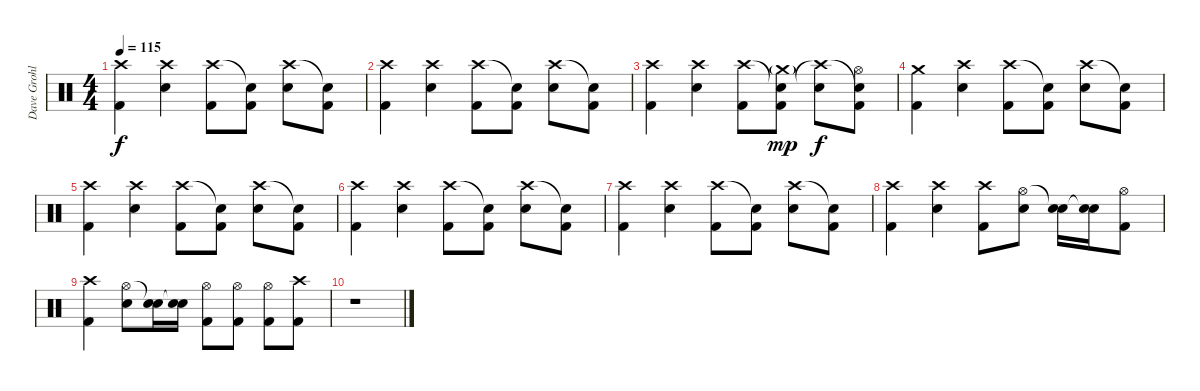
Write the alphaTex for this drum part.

\track ("Dave Grohl - Drums" "Dave Grohl") {instrument percussion}
\staff {score}
\articulation defaults
\ts (4 4)
\tempo 115
\clef neutral
\ks c
("Crash high (hit)" "Kick (hit) 2").4{dy f} ("Crash high (hit)" "Electric Snare (hit)").4 ("Crash high (hit)" "Kick (hit) 2").8 ("Snare (hit)"{t} "Kick (hit) 2").8 ("Crash high (hit)" "Electric Snare (hit)").8 ("Snare (hit)"{t} "Kick (hit) 2").8 |
("Crash high (hit)" "Kick (hit) 2").4 ("Crash high (hit)" "Electric Snare (hit)").4 ("Crash high (hit)" "Kick (hit) 2").8 ("Snare (hit)"{t} "Kick (hit) 2").8 ("Crash high (hit)" "Electric Snare (hit)").8 ("Snare (hit)"{t} "Kick (hit) 2").8 |
("Crash high (hit)" "Kick (hit) 2").4 ("Crash high (hit)" "Electric Snare (hit)").4 ("Crash high (hit)" "Kick (hit) 2").8 ("Snare (hit)"{t} "Crash medium (hit)"{g} "Kick (hit) 2").8{dy mp} ("Crash high (hit)"{t} "Electric Snare (hit)").8{dy f} ("Snare (hit)"{t} "Hi-Hat (open)" "Kick (hit) 2").8 |
("Crash medium (hit)" "Kick (hit) 2").4 ("Crash high (hit)" "Electric Snare (hit)").4 ("Crash high (hit)" "Kick (hit) 2").8 ("Snare (hit)"{t} "Kick (hit) 2").8 ("Crash high (hit)" "Electric Snare (hit)").8 ("Snare (hit)"{t} "Kick (hit) 2").8 |
("Crash high (hit)" "Kick (hit) 2").4 ("Crash high (hit)" "Electric Snare (hit)").4 ("Crash high (hit)" "Kick (hit) 2").8 ("Snare (hit)"{t} "Kick (hit) 2").8 ("Crash high (hit)" "Electric Snare (hit)").8 ("Snare (hit)"{t} "Kick (hit) 2").8 |
("Crash high (hit)" "Kick (hit) 2").4 ("Crash high (hit)" "Electric Snare (hit)").4 ("Crash high (hit)" "Kick (hit) 2").8 ("Snare (hit)"{t} "Kick (hit) 2").8 ("Crash high (hit)" "Electric Snare (hit)").8 ("Snare (hit)"{t} "Kick (hit) 2").8 |
("Crash high (hit)" "Kick (hit) 2").4 ("Crash high (hit)" "Electric Snare (hit)").4 ("Crash high (hit)" "Kick (hit) 2").8 ("Snare (hit)"{t} "Kick (hit) 2").8 ("Crash high (hit)" "Electric Snare (hit)").8 ("Snare (hit)"{t} "Kick (hit) 2").8 |
("Crash high (hit)" "Kick (hit) 2").4 ("Crash high (hit)" "Electric Snare (hit)").4 ("Crash high (hit)" "Kick (hit) 2").8 ("Hi-Hat (open)" "Electric Snare (hit)").8 ("Snare (hit)"{t} "Electric Snare (hit)").16 ("Snare (hit)"{t} "Electric Snare (hit)").16 ("Hi-Hat (open)" "Kick (hit) 2").8 |
("Crash high (hit)" "Kick (hit) 2").4 ("Hi-Hat (open)" "Electric Snare (hit)").8 ("Snare (hit)"{t} "Electric Snare (hit)").16 ("Snare (hit)"{t} "Electric Snare (hit)").16 ("Hi-Hat (open)" "Kick (hit) 2").8 ("Hi-Hat (open)" "Kick (hit) 2").8 ("Hi-Hat (open)" "Kick (hit) 2").8 ("Crash high (hit)" "Kick (hit) 2").8 |
r.1{volume 0}
